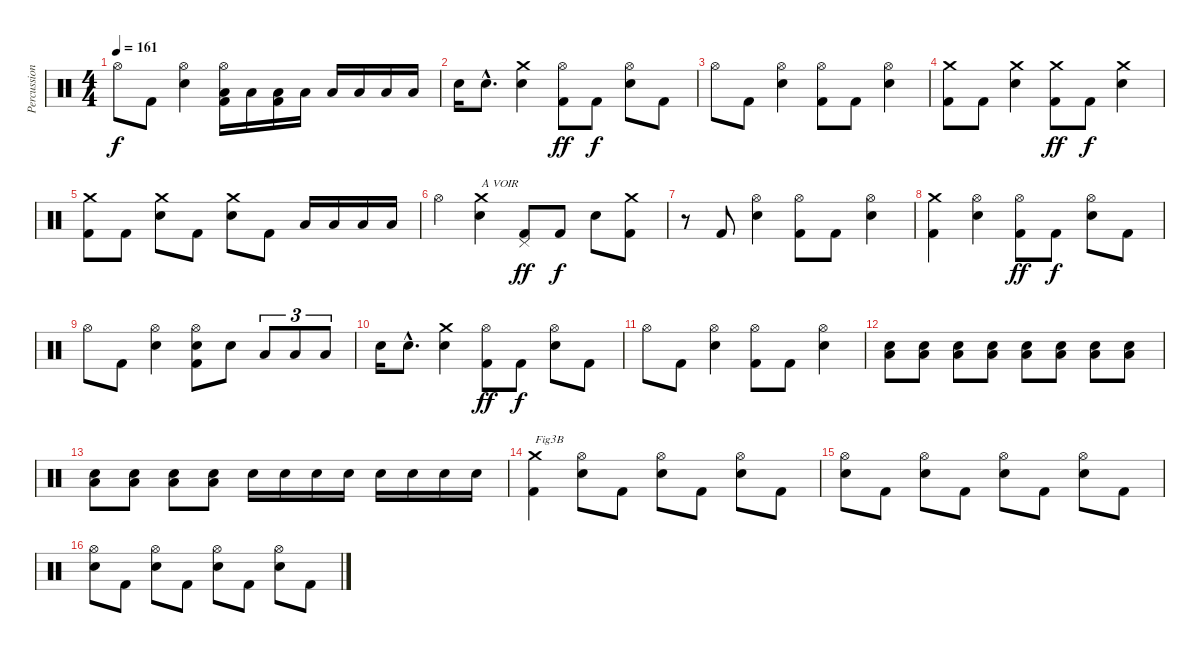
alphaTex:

\track ("Percussions" "Percussion") {instrument percussion}
\staff {score}
\articulation defaults
\ts (4 4)
\tempo 161
\clef neutral
\ks c "Hi-Hat (open)".8{dy f} "Kick (hit) 2".8
("Electric Snare (hit)" "Hi-Hat (open)").4 ("Kick (hit) 2" "Low Tom (hit)" "Hi-Hat (open)").16 "Low Tom (hit)".16 ("Kick (hit) 2" "Low Floor Tom (hit)").16 "Low Floor Tom (hit)".16 "Low Floor Tom (hit)".16 "Low Floor Tom (hit)".16 "Low Floor Tom (hit)".16 "Low Floor Tom (hit)".16 |
"Electric Snare (hit)".16 "Electric Snare (hit)"{hac}.8{d} ("Electric Snare (hit)" "Crash medium (hit)").4 ("Kick (hit) 2" "Hi-Hat (open)").8{dy ff} "Kick (hit) 2".8{dy f} ("Electric Snare (hit)" "Hi-Hat (open)").8 "Kick (hit) 2".8 |
"Hi-Hat (open)".8 "Kick (hit) 2".8 ("Electric Snare (hit)" "Hi-Hat (open)").4 ("Kick (hit) 2" "Hi-Hat (open)").8 "Kick (hit) 2".8 ("Electric Snare (hit)" "Hi-Hat (open)").4 |
("Kick (hit) 2" "Crash medium (hit)").8 "Kick (hit) 2".8 ("Electric Snare (hit)" "Crash medium (hit)").4 ("Kick (hit) 2" "Crash medium (hit)").8{dy ff} "Kick (hit) 2".8{dy f} ("Electric Snare (hit)" "Crash medium (hit)").4 |
("Kick (hit) 2" "Crash medium (hit)").8 "Kick (hit) 2".8 ("Electric Snare (hit)" "Crash medium (hit)").8 "Kick (hit) 2".8 ("Electric Snare (hit)" "Crash medium (hit)").8 "Kick (hit) 2".8 "Low Floor Tom (hit)".16 "Low Floor Tom (hit)".16 "Low Floor Tom (hit)".16 "Low Floor Tom (hit)".16 |
"Hi-Hat (open)".4 ("Electric Snare (hit)" "Crash medium (hit)").4{txt "A VOIR"} ("Kick (hit) 2" "Pedal Hi-Hat (hit)").8{dy ff} "Kick (hit) 2".8{dy f} "Electric Snare (hit)".8 ("Kick (hit) 2" "Crash medium (hit)").8 |
r.8 "Kick (hit) 2".8 ("Electric Snare (hit)" "Hi-Hat (open)").4 ("Kick (hit) 2" "Hi-Hat (open)").8 "Kick (hit) 2".8 ("Electric Snare (hit)" "Hi-Hat (open)").4 |
("Kick (hit) 2" "Crash medium (hit)").4 ("Electric Snare (hit)" "Hi-Hat (open)").4 ("Kick (hit) 2" "Hi-Hat (open)").8{dy ff} "Kick (hit) 2".8{dy f} ("Electric Snare (hit)" "Hi-Hat (open)").8 "Kick (hit) 2".8 |
"Hi-Hat (open)".8 "Kick (hit) 2".8 ("Electric Snare (hit)" "Hi-Hat (open)").4 ("Kick (hit) 2" "Electric Snare (hit)" "Hi-Hat (open)").8 "Electric Snare (hit)".8 "Low Floor Tom (hit)".8{tu (3 2)} "Low Floor Tom (hit)".8{tu (3 2)} "Low Floor Tom (hit)".8{tu (3 2)} |
"Electric Snare (hit)".16 "Electric Snare (hit)"{hac}.8{d} ("Electric Snare (hit)" "Crash medium (hit)").4 ("Kick (hit) 2" "Hi-Hat (open)").8{dy ff} "Kick (hit) 2".8{dy f} ("Electric Snare (hit)" "Hi-Hat (open)").8 "Kick (hit) 2".8 |
"Hi-Hat (open)".8 "Kick (hit) 2".8 ("Electric Snare (hit)" "Hi-Hat (open)").4 ("Kick (hit) 2" "Hi-Hat (open)").8 "Kick (hit) 2".8 ("Electric Snare (hit)" "Hi-Hat (open)").4 |
("Electric Snare (hit)" "Low Floor Tom (hit)").8{volume 5} ("Electric Snare (hit)" "Low Floor Tom (hit)").8{volume 16} ("Electric Snare (hit)" "Low Floor Tom (hit)").8 ("Electric Snare (hit)" "Low Floor Tom (hit)").8 ("Electric Snare (hit)" "Low Floor Tom (hit)").8 ("Electric Snare (hit)" "Low Floor Tom (hit)").8 ("Electric Snare (hit)" "Low Floor Tom (hit)").8 ("Electric Snare (hit)" "Low Floor Tom (hit)").8 |
("Electric Snare (hit)" "Low Floor Tom (hit)").8 ("Electric Snare (hit)" "Low Floor Tom (hit)").8 ("Electric Snare (hit)" "Low Floor Tom (hit)").8 ("Electric Snare (hit)" "Low Floor Tom (hit)").8 "Electric Snare (hit)".16 "Electric Snare (hit)".16 "Electric Snare (hit)".16 "Electric Snare (hit)".16 "Electric Snare (hit)".16 "Electric Snare (hit)".16 "Electric Snare (hit)".16 "Electric Snare (hit)".16 |
("Kick (hit) 2" "Crash medium (hit)").4{txt "Fig3B"} ("Electric Snare (hit)" "Hi-Hat (open)").8 "Kick (hit) 2".8 ("Electric Snare (hit)" "Hi-Hat (open)").8 "Kick (hit) 2".8 ("Electric Snare (hit)" "Hi-Hat (open)").8 "Kick (hit) 2".8 |
("Electric Snare (hit)" "Hi-Hat (open)").8 "Kick (hit) 2".8 ("Electric Snare (hit)" "Hi-Hat (open)").8 "Kick (hit) 2".8 ("Electric Snare (hit)" "Hi-Hat (open)").8 "Kick (hit) 2".8 ("Electric Snare (hit)" "Hi-Hat (open)").8 "Kick (hit) 2".8 |
("Electric Snare (hit)" "Hi-Hat (open)").8 "Kick (hit) 2".8 ("Electric Snare (hit)" "Hi-Hat (open)").8 "Kick (hit) 2".8 ("Electric Snare (hit)" "Hi-Hat (open)").8 "Kick (hit) 2".8 ("Electric Snare (hit)" "Hi-Hat (open)").8 "Kick (hit) 2".8
